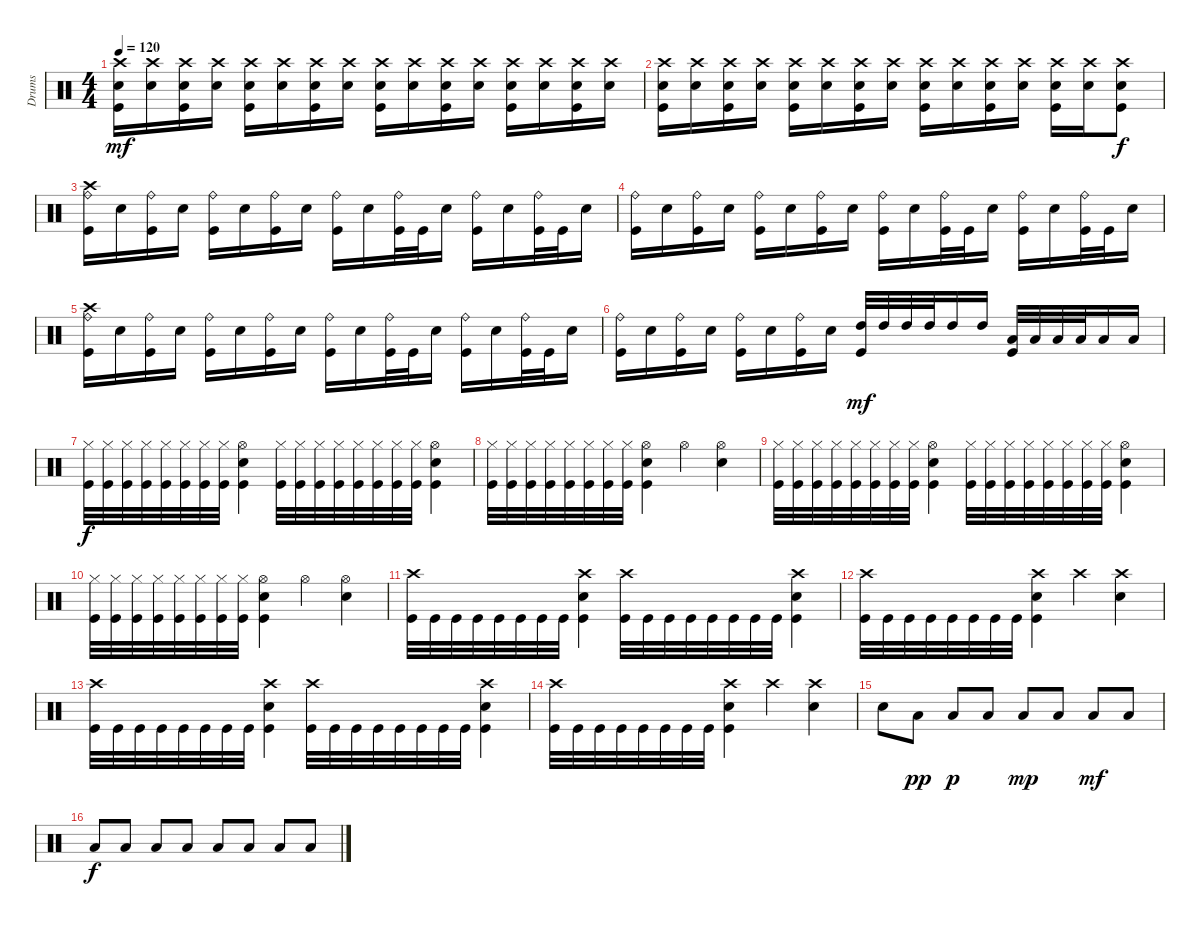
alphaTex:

\track ("Drums" "Drums") {instrument percussion}
\staff {score}
\articulation defaults
\ts (4 4)
\tempo 120
\clef neutral
\ks c
("Crash high (hit)" "Snare (hit) 2" "Kick (hit)").16{dy mf} ("Crash high (hit)" "Snare (hit) 2").16 ("Crash high (hit)" "Snare (hit) 2" "Kick (hit)").16 ("Crash high (hit)" "Snare (hit) 2").16 ("Crash high (hit)" "Snare (hit) 2" "Kick (hit)").16 ("Crash high (hit)" "Snare (hit) 2").16 ("Crash high (hit)" "Snare (hit) 2" "Kick (hit)").16 ("Crash high (hit)" "Snare (hit) 2").16 ("Crash high (hit)" "Snare (hit) 2" "Kick (hit)").16 ("Crash high (hit)" "Snare (hit) 2").16 ("Crash high (hit)" "Snare (hit) 2" "Kick (hit)").16 ("Crash high (hit)" "Snare (hit) 2").16 ("Crash high (hit)" "Snare (hit) 2" "Kick (hit)").16 ("Crash high (hit)" "Snare (hit) 2").16 ("Crash high (hit)" "Snare (hit) 2" "Kick (hit)").16 ("Crash high (hit)" "Snare (hit) 2").16 |
("Crash high (hit)" "Snare (hit) 2" "Kick (hit)").16 ("Crash high (hit)" "Snare (hit) 2").16 ("Crash high (hit)" "Snare (hit) 2" "Kick (hit)").16 ("Crash high (hit)" "Snare (hit) 2").16 ("Crash high (hit)" "Snare (hit) 2" "Kick (hit)").16 ("Crash high (hit)" "Snare (hit) 2").16 ("Crash high (hit)" "Snare (hit) 2" "Kick (hit)").16 ("Crash high (hit)" "Snare (hit) 2").16 ("Crash high (hit)" "Snare (hit) 2" "Kick (hit)").16 ("Crash high (hit)" "Snare (hit) 2").16 ("Crash high (hit)" "Snare (hit) 2" "Kick (hit)").16 ("Crash high (hit)" "Snare (hit) 2").16 ("Crash high (hit)" "Snare (hit) 2" "Kick (hit)").16 ("Crash high (hit)" "Snare (hit) 2").16 ("Crash high (hit)" "Snare (hit) 2" "Kick (hit)").8{dy f} |
("Crash high (hit)" "Ride (bell)" "Kick (hit)").16 "Snare (hit) 2".16 ("Ride (bell)" "Kick (hit)").16 "Snare (hit) 2".16 ("Ride (bell)" "Kick (hit)").16 "Snare (hit) 2".16 ("Ride (bell)" "Kick (hit)").16 "Snare (hit) 2".16 ("Ride (bell)" "Kick (hit)").16 "Snare (hit) 2".16 ("Ride (bell)" "Kick (hit)").32 "Kick (hit)".32 "Snare (hit) 2".16 ("Ride (bell)" "Kick (hit)").16 "Snare (hit) 2".16 ("Ride (bell)" "Kick (hit)").32 "Kick (hit)".32 "Snare (hit) 2".16 |
("Ride (bell)" "Kick (hit)").16 "Snare (hit) 2".16 ("Ride (bell)" "Kick (hit)").16 "Snare (hit) 2".16 ("Ride (bell)" "Kick (hit)").16 "Snare (hit) 2".16 ("Ride (bell)" "Kick (hit)").16 "Snare (hit) 2".16 ("Ride (bell)" "Kick (hit)").16 "Snare (hit) 2".16 ("Ride (bell)" "Kick (hit)").32 "Kick (hit)".32 "Snare (hit) 2".16 ("Ride (bell)" "Kick (hit)").16 "Snare (hit) 2".16 ("Ride (bell)" "Kick (hit)").32 "Kick (hit)".32 "Snare (hit) 2".16 |
("Crash high (hit)" "Ride (bell)" "Kick (hit)").16 "Snare (hit) 2".16 ("Ride (bell)" "Kick (hit)").16 "Snare (hit) 2".16 ("Ride (bell)" "Kick (hit)").16 "Snare (hit) 2".16 ("Ride (bell)" "Kick (hit)").16 "Snare (hit) 2".16 ("Ride (bell)" "Kick (hit)").16 "Snare (hit) 2".16 ("Ride (bell)" "Kick (hit)").32 "Kick (hit)".32 "Snare (hit) 2".16 ("Ride (bell)" "Kick (hit)").16 "Snare (hit) 2".16 ("Ride (bell)" "Kick (hit)").32 "Kick (hit)".32 "Snare (hit) 2".16 |
("Ride (bell)" "Kick (hit)").16 "Snare (hit) 2".16 ("Ride (bell)" "Kick (hit)").16 "Snare (hit) 2".16 ("Ride (bell)" "Kick (hit)").16 "Snare (hit) 2".16 ("Ride (bell)" "Kick (hit)").16 "Snare (hit) 2".16 ("High Tom (hit)" "Kick (hit)").32{dy mf} "High Tom (hit)".32 "High Tom (hit)".32 "High Tom (hit)".32 "High Tom (hit)".16 "High Tom (hit)".16 ("Low Tom (hit)" "Kick (hit)").32 "Low Tom (hit)".32 "Low Tom (hit)".32 "Low Tom (hit)".32 "Low Tom (hit)".16 "Low Tom (hit)".16 |
("Hi-Hat (closed)" "Kick (hit)").32{dy f} ("Hi-Hat (closed)" "Kick (hit)").32 ("Hi-Hat (closed)" "Kick (hit)").32 ("Hi-Hat (closed)" "Kick (hit)").32 ("Hi-Hat (closed)" "Kick (hit)").32 ("Hi-Hat (closed)" "Kick (hit)").32 ("Hi-Hat (closed)" "Kick (hit)").32 ("Hi-Hat (closed)" "Kick (hit)").32 ("Hi-Hat (open)" "Snare (hit) 2" "Kick (hit)").4 ("Hi-Hat (closed)" "Kick (hit)").32 ("Hi-Hat (closed)" "Kick (hit)").32 ("Hi-Hat (closed)" "Kick (hit)").32 ("Hi-Hat (closed)" "Kick (hit)").32 ("Hi-Hat (closed)" "Kick (hit)").32 ("Hi-Hat (closed)" "Kick (hit)").32 ("Hi-Hat (closed)" "Kick (hit)").32 ("Hi-Hat (closed)" "Kick (hit)").32 ("Hi-Hat (open)" "Snare (hit) 2" "Kick (hit)").4 |
("Hi-Hat (closed)" "Kick (hit)").32 ("Hi-Hat (closed)" "Kick (hit)").32 ("Hi-Hat (closed)" "Kick (hit)").32 ("Hi-Hat (closed)" "Kick (hit)").32 ("Hi-Hat (closed)" "Kick (hit)").32 ("Hi-Hat (closed)" "Kick (hit)").32 ("Hi-Hat (closed)" "Kick (hit)").32 ("Hi-Hat (closed)" "Kick (hit)").32 ("Hi-Hat (open)" "Snare (hit) 2" "Kick (hit)").4 "Hi-Hat (open)".4 ("Hi-Hat (open)" "Snare (hit) 2").4 |
("Hi-Hat (closed)" "Kick (hit)").32 ("Hi-Hat (closed)" "Kick (hit)").32 ("Hi-Hat (closed)" "Kick (hit)").32 ("Hi-Hat (closed)" "Kick (hit)").32 ("Hi-Hat (closed)" "Kick (hit)").32 ("Hi-Hat (closed)" "Kick (hit)").32 ("Hi-Hat (closed)" "Kick (hit)").32 ("Hi-Hat (closed)" "Kick (hit)").32 ("Hi-Hat (open)" "Snare (hit) 2" "Kick (hit)").4 ("Hi-Hat (closed)" "Kick (hit)").32 ("Hi-Hat (closed)" "Kick (hit)").32 ("Hi-Hat (closed)" "Kick (hit)").32 ("Hi-Hat (closed)" "Kick (hit)").32 ("Hi-Hat (closed)" "Kick (hit)").32 ("Hi-Hat (closed)" "Kick (hit)").32 ("Hi-Hat (closed)" "Kick (hit)").32 ("Hi-Hat (closed)" "Kick (hit)").32 ("Hi-Hat (open)" "Snare (hit) 2" "Kick (hit)").4 |
("Hi-Hat (closed)" "Kick (hit)").32 ("Hi-Hat (closed)" "Kick (hit)").32 ("Hi-Hat (closed)" "Kick (hit)").32 ("Hi-Hat (closed)" "Kick (hit)").32 ("Hi-Hat (closed)" "Kick (hit)").32 ("Hi-Hat (closed)" "Kick (hit)").32 ("Hi-Hat (closed)" "Kick (hit)").32 ("Hi-Hat (closed)" "Kick (hit)").32 ("Hi-Hat (open)" "Snare (hit) 2" "Kick (hit)").4 "Hi-Hat (open)".4 ("Hi-Hat (open)" "Snare (hit) 2").4 |
("Crash high (hit)" "Kick (hit)").32 "Kick (hit)".32 "Kick (hit)".32 "Kick (hit)".32 "Kick (hit)".32 "Kick (hit)".32 "Kick (hit)".32 "Kick (hit)".32 ("Crash high (hit)" "Snare (hit) 2" "Kick (hit)").4 ("Crash high (hit)" "Kick (hit)").32 "Kick (hit)".32 "Kick (hit)".32 "Kick (hit)".32 "Kick (hit)".32 "Kick (hit)".32 "Kick (hit)".32 "Kick (hit)".32 ("Crash high (hit)" "Snare (hit) 2" "Kick (hit)").4 |
("Crash high (hit)" "Kick (hit)").32 "Kick (hit)".32 "Kick (hit)".32 "Kick (hit)".32 "Kick (hit)".32 "Kick (hit)".32 "Kick (hit)".32 "Kick (hit)".32 ("Crash high (hit)" "Snare (hit) 2" "Kick (hit)").4 "Crash high (hit)".4 ("Crash high (hit)" "Snare (hit) 2").4 |
("Crash high (hit)" "Kick (hit)").32 "Kick (hit)".32 "Kick (hit)".32 "Kick (hit)".32 "Kick (hit)".32 "Kick (hit)".32 "Kick (hit)".32 "Kick (hit)".32 ("Crash high (hit)" "Snare (hit) 2" "Kick (hit)").4 ("Crash high (hit)" "Kick (hit)").32 "Kick (hit)".32 "Kick (hit)".32 "Kick (hit)".32 "Kick (hit)".32 "Kick (hit)".32 "Kick (hit)".32 "Kick (hit)".32 ("Crash high (hit)" "Snare (hit) 2" "Kick (hit)").4 |
("Crash high (hit)" "Kick (hit)").32 "Kick (hit)".32 "Kick (hit)".32 "Kick (hit)".32 "Kick (hit)".32 "Kick (hit)".32 "Kick (hit)".32 "Kick (hit)".32 ("Crash high (hit)" "Snare (hit) 2" "Kick (hit)").4 "Crash high (hit)".4 ("Crash high (hit)" "Snare (hit) 2").4 |
"Snare (hit) 2".8 "Low Floor Tom (hit)".8{dy pp} "Low Floor Tom (hit)".8{dy p} "Low Floor Tom (hit)".8 "Low Floor Tom (hit)".8{dy mp} "Low Floor Tom (hit)".8 "Low Floor Tom (hit)".8{dy mf} "Low Floor Tom (hit)".8 |
"Low Floor Tom (hit)".8{dy f} "Low Floor Tom (hit)".8 "Low Floor Tom (hit)".8 "Low Floor Tom (hit)".8 "Low Floor Tom (hit)".8 "Low Floor Tom (hit)".8 "Low Floor Tom (hit)".8 "Low Floor Tom (hit)".8
